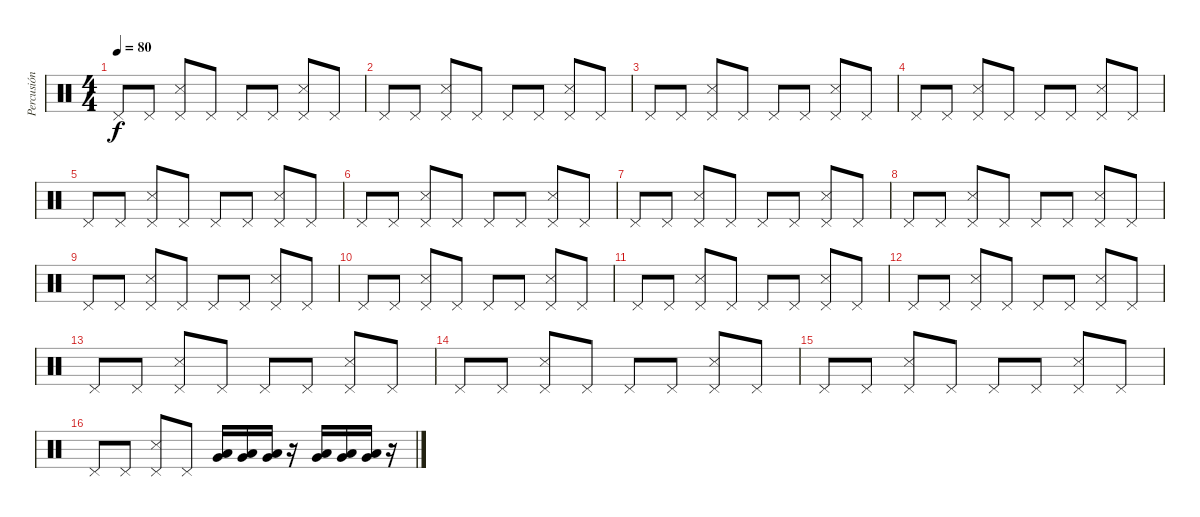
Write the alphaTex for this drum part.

\track ("Percusión" "Percusión") {instrument percussion}
\staff {score}
\articulation defaults
\ts (4 4)
\tempo 80
\clef neutral
\ks c "Pedal Hi-Hat (hit)".8{dy f} "Pedal Hi-Hat (hit)".8
("Pedal Hi-Hat (hit)" "Snare (side stick) 3").8 "Pedal Hi-Hat (hit)".8 "Pedal Hi-Hat (hit)".8 "Pedal Hi-Hat (hit)".8 ("Pedal Hi-Hat (hit)" "Snare (side stick) 3").8 "Pedal Hi-Hat (hit)".8 |
"Pedal Hi-Hat (hit)".8 "Pedal Hi-Hat (hit)".8 ("Pedal Hi-Hat (hit)" "Snare (side stick) 3").8 "Pedal Hi-Hat (hit)".8 "Pedal Hi-Hat (hit)".8 "Pedal Hi-Hat (hit)".8 ("Pedal Hi-Hat (hit)" "Snare (side stick) 3").8 "Pedal Hi-Hat (hit)".8 |
"Pedal Hi-Hat (hit)".8 "Pedal Hi-Hat (hit)".8 ("Pedal Hi-Hat (hit)" "Snare (side stick) 3").8 "Pedal Hi-Hat (hit)".8 "Pedal Hi-Hat (hit)".8 "Pedal Hi-Hat (hit)".8 ("Pedal Hi-Hat (hit)" "Snare (side stick) 3").8 "Pedal Hi-Hat (hit)".8 |
"Pedal Hi-Hat (hit)".8 "Pedal Hi-Hat (hit)".8 ("Pedal Hi-Hat (hit)" "Snare (side stick) 3").8 "Pedal Hi-Hat (hit)".8 "Pedal Hi-Hat (hit)".8 "Pedal Hi-Hat (hit)".8 ("Pedal Hi-Hat (hit)" "Snare (side stick) 3").8 "Pedal Hi-Hat (hit)".8 |
"Pedal Hi-Hat (hit)".8 "Pedal Hi-Hat (hit)".8 ("Pedal Hi-Hat (hit)" "Snare (side stick) 3").8 "Pedal Hi-Hat (hit)".8 "Pedal Hi-Hat (hit)".8 "Pedal Hi-Hat (hit)".8 ("Pedal Hi-Hat (hit)" "Snare (side stick) 3").8 "Pedal Hi-Hat (hit)".8 |
"Pedal Hi-Hat (hit)".8 "Pedal Hi-Hat (hit)".8 ("Pedal Hi-Hat (hit)" "Snare (side stick) 3").8 "Pedal Hi-Hat (hit)".8 "Pedal Hi-Hat (hit)".8 "Pedal Hi-Hat (hit)".8 ("Pedal Hi-Hat (hit)" "Snare (side stick) 3").8 "Pedal Hi-Hat (hit)".8 |
"Pedal Hi-Hat (hit)".8 "Pedal Hi-Hat (hit)".8 ("Pedal Hi-Hat (hit)" "Snare (side stick) 3").8 "Pedal Hi-Hat (hit)".8 "Pedal Hi-Hat (hit)".8 "Pedal Hi-Hat (hit)".8 ("Pedal Hi-Hat (hit)" "Snare (side stick) 3").8 "Pedal Hi-Hat (hit)".8 |
"Pedal Hi-Hat (hit)".8 "Pedal Hi-Hat (hit)".8 ("Pedal Hi-Hat (hit)" "Snare (side stick) 3").8 "Pedal Hi-Hat (hit)".8 "Pedal Hi-Hat (hit)".8 "Pedal Hi-Hat (hit)".8 ("Pedal Hi-Hat (hit)" "Snare (side stick) 3").8 "Pedal Hi-Hat (hit)".8 |
"Pedal Hi-Hat (hit)".8 "Pedal Hi-Hat (hit)".8 ("Pedal Hi-Hat (hit)" "Snare (side stick) 3").8 "Pedal Hi-Hat (hit)".8 "Pedal Hi-Hat (hit)".8 "Pedal Hi-Hat (hit)".8 ("Pedal Hi-Hat (hit)" "Snare (side stick) 3").8 "Pedal Hi-Hat (hit)".8 |
"Pedal Hi-Hat (hit)".8 "Pedal Hi-Hat (hit)".8 ("Pedal Hi-Hat (hit)" "Snare (side stick) 3").8 "Pedal Hi-Hat (hit)".8 "Pedal Hi-Hat (hit)".8 "Pedal Hi-Hat (hit)".8 ("Pedal Hi-Hat (hit)" "Snare (side stick) 3").8 "Pedal Hi-Hat (hit)".8 |
"Pedal Hi-Hat (hit)".8 "Pedal Hi-Hat (hit)".8 ("Pedal Hi-Hat (hit)" "Snare (side stick) 3").8 "Pedal Hi-Hat (hit)".8 "Pedal Hi-Hat (hit)".8 "Pedal Hi-Hat (hit)".8 ("Pedal Hi-Hat (hit)" "Snare (side stick) 3").8 "Pedal Hi-Hat (hit)".8 |
"Pedal Hi-Hat (hit)".8 "Pedal Hi-Hat (hit)".8 ("Pedal Hi-Hat (hit)" "Snare (side stick) 3").8 "Pedal Hi-Hat (hit)".8 "Pedal Hi-Hat (hit)".8 "Pedal Hi-Hat (hit)".8 ("Pedal Hi-Hat (hit)" "Snare (side stick) 3").8 "Pedal Hi-Hat (hit)".8 |
"Pedal Hi-Hat (hit)".8 "Pedal Hi-Hat (hit)".8 ("Pedal Hi-Hat (hit)" "Snare (side stick) 3").8 "Pedal Hi-Hat (hit)".8 "Pedal Hi-Hat (hit)".8 "Pedal Hi-Hat (hit)".8 ("Pedal Hi-Hat (hit)" "Snare (side stick) 3").8 "Pedal Hi-Hat (hit)".8 |
"Pedal Hi-Hat (hit)".8 "Pedal Hi-Hat (hit)".8 ("Pedal Hi-Hat (hit)" "Snare (side stick) 3").8 "Pedal Hi-Hat (hit)".8 "Pedal Hi-Hat (hit)".8 "Pedal Hi-Hat (hit)".8 ("Pedal Hi-Hat (hit)" "Snare (side stick) 3").8 "Pedal Hi-Hat (hit)".8 |
"Pedal Hi-Hat (hit)".8 "Pedal Hi-Hat (hit)".8 ("Pedal Hi-Hat (hit)" "Snare (side stick) 3").8 "Pedal Hi-Hat (hit)".8 "Pedal Hi-Hat (hit)".8 "Pedal Hi-Hat (hit)".8 ("Pedal Hi-Hat (hit)" "Snare (side stick) 3").8 "Pedal Hi-Hat (hit)".8 |
"Pedal Hi-Hat (hit)".8 "Pedal Hi-Hat (hit)".8 ("Pedal Hi-Hat (hit)" "Snare (side stick) 3").8 "Pedal Hi-Hat (hit)".8 ("Very Low Tom (hit)" "Low Tom (hit)").16 ("Very Low Tom (hit)" "Low Tom (hit)").16 ("Very Low Tom (hit)" "Low Tom (hit)").16 r.16 ("Very Low Tom (hit)" "Low Tom (hit)").16 ("Very Low Tom (hit)" "Low Tom (hit)").16 ("Very Low Tom (hit)" "Low Tom (hit)").16 r.16
